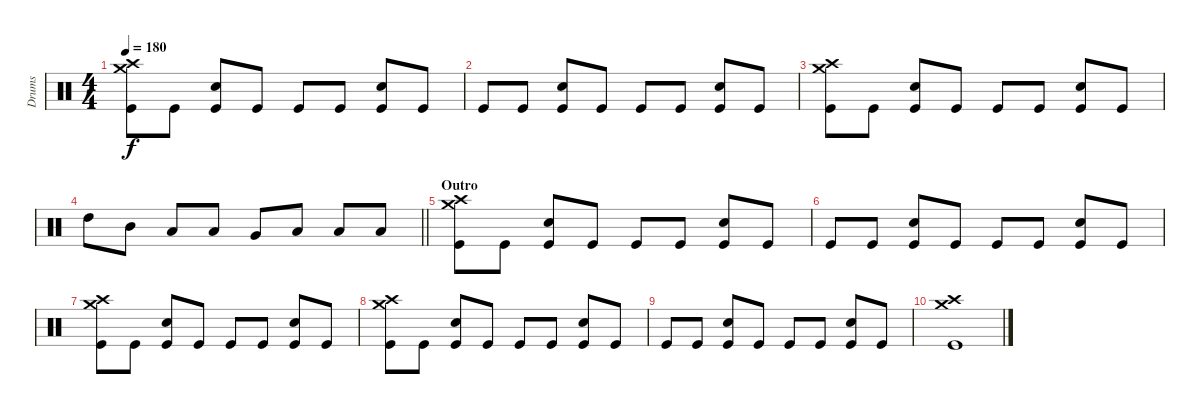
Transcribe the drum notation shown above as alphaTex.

\track ("Drums" "Drums") {instrument percussion}
\staff {score}
\articulation defaults
\ts (4 4)
\tempo 180
\clef neutral
\ks c
("Crash medium (hit)" "Crash high (hit)" "Kick (hit)").8{dy f} "Kick (hit)".8 ("Electric Snare (hit)" "Kick (hit)").8 "Kick (hit)".8 "Kick (hit)".8 "Kick (hit)".8 ("Electric Snare (hit)" "Kick (hit)").8 "Kick (hit)".8 |
"Kick (hit)".8 "Kick (hit)".8 ("Electric Snare (hit)" "Kick (hit)").8 "Kick (hit)".8 "Kick (hit)".8 "Kick (hit)".8 ("Electric Snare (hit)" "Kick (hit)").8 "Kick (hit)".8 |
("Crash medium (hit)" "Crash high (hit)" "Kick (hit)").8 "Kick (hit)".8 ("Electric Snare (hit)" "Kick (hit)").8 "Kick (hit)".8 "Kick (hit)".8 "Kick (hit)".8 ("Electric Snare (hit)" "Kick (hit)").8 "Kick (hit)".8 |
\barLineRight lightlight "High Tom (hit)".8 "Mid Tom (hit)".8 "Low Tom (hit)".8 "Low Tom (hit)".8 "Very Low Tom (hit)".8 "Low Floor Tom (hit)".8 "Low Floor Tom (hit)".8 "Low Floor Tom (hit)".8
|
\section ("" "Outro")
("Crash medium (hit)" "Crash high (hit)" "Kick (hit)").8 "Kick (hit)".8 ("Electric Snare (hit)" "Kick (hit)").8 "Kick (hit)".8 "Kick (hit)".8 "Kick (hit)".8 ("Electric Snare (hit)" "Kick (hit)").8 "Kick (hit)".8 |
"Kick (hit)".8 "Kick (hit)".8 ("Electric Snare (hit)" "Kick (hit)").8 "Kick (hit)".8 "Kick (hit)".8 "Kick (hit)".8 ("Electric Snare (hit)" "Kick (hit)").8 "Kick (hit)".8 |
("Crash medium (hit)" "Crash high (hit)" "Kick (hit)").8 "Kick (hit)".8 ("Electric Snare (hit)" "Kick (hit)").8 "Kick (hit)".8 "Kick (hit)".8 "Kick (hit)".8 ("Electric Snare (hit)" "Kick (hit)").8 "Kick (hit)".8 |
("Crash medium (hit)" "Crash high (hit)" "Kick (hit)").8 "Kick (hit)".8 ("Electric Snare (hit)" "Kick (hit)").8 "Kick (hit)".8 "Kick (hit)".8 "Kick (hit)".8 ("Electric Snare (hit)" "Kick (hit)").8 "Kick (hit)".8 |
"Kick (hit)".8 "Kick (hit)".8 ("Electric Snare (hit)" "Kick (hit)").8 "Kick (hit)".8 "Kick (hit)".8 "Kick (hit)".8 ("Electric Snare (hit)" "Kick (hit)").8 "Kick (hit)".8 |
("Crash medium (hit)" "Crash high (hit)" "Kick (hit)").1
